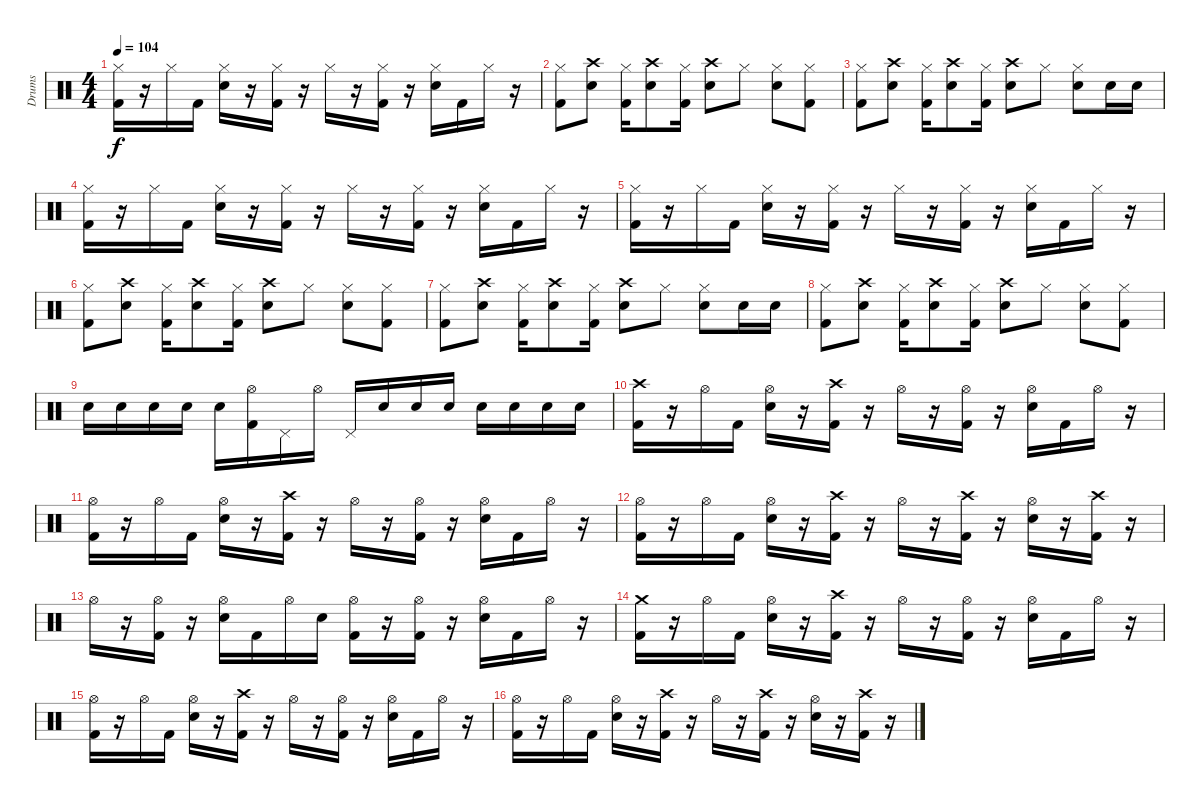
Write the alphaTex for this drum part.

\track ("Drums" "Drums") {instrument percussion}
\staff {score}
\articulation defaults
\ts (4 4)
\tempo 104
\clef neutral
\ks c
("Hi-Hat (closed)" "Kick (hit) 2").16{dy f} r.16 "Hi-Hat (closed)".16 "Kick (hit) 2".16 ("Hi-Hat (closed)" "Snare (hit) 2").16 r.16 ("Hi-Hat (closed)" "Kick (hit) 2").16 r.16 "Hi-Hat (closed)".16 r.16 ("Hi-Hat (closed)" "Kick (hit) 2").16 r.16 ("Hi-Hat (closed)" "Snare (hit) 2").16 "Kick (hit) 2".16 "Hi-Hat (closed)".16 r.16 |
("Hi-Hat (closed)" "Kick (hit) 2").8 ("Crash high (hit)" "Snare (hit) 2").8 ("Hi-Hat (closed)" "Kick (hit) 2").16 ("Crash high (hit)" "Snare (hit) 2").8 ("Hi-Hat (closed)" "Kick (hit) 2").16 ("Crash high (hit)" "Snare (hit) 2").8 "Hi-Hat (closed)".8 ("Hi-Hat (closed)" "Snare (hit) 2").8 ("Hi-Hat (closed)" "Kick (hit) 2").8 |
("Hi-Hat (closed)" "Kick (hit) 2").8 ("Crash high (hit)" "Snare (hit) 2").8 ("Hi-Hat (closed)" "Kick (hit) 2").16 ("Crash high (hit)" "Snare (hit) 2").8 ("Hi-Hat (closed)" "Kick (hit) 2").16 ("Crash high (hit)" "Snare (hit) 2").8 "Hi-Hat (closed)".8 ("Hi-Hat (closed)" "Snare (hit) 2").8 "Snare (hit) 2".16 "Snare (hit) 2".16 |
("Hi-Hat (closed)" "Kick (hit) 2").16 r.16 "Hi-Hat (closed)".16 "Kick (hit) 2".16 ("Hi-Hat (closed)" "Snare (hit) 2").16 r.16 ("Hi-Hat (closed)" "Kick (hit) 2").16 r.16 "Hi-Hat (closed)".16 r.16 ("Hi-Hat (closed)" "Kick (hit) 2").16 r.16 ("Hi-Hat (closed)" "Snare (hit) 2").16 "Kick (hit) 2".16 "Hi-Hat (closed)".16 r.16 |
("Hi-Hat (closed)" "Kick (hit) 2").16 r.16 "Hi-Hat (closed)".16 "Kick (hit) 2".16 ("Hi-Hat (closed)" "Snare (hit) 2").16 r.16 ("Hi-Hat (closed)" "Kick (hit) 2").16 r.16 "Hi-Hat (closed)".16 r.16 ("Hi-Hat (closed)" "Kick (hit) 2").16 r.16 ("Hi-Hat (closed)" "Snare (hit) 2").16 "Kick (hit) 2".16 "Hi-Hat (closed)".16 r.16 |
("Hi-Hat (closed)" "Kick (hit) 2").8 ("Crash high (hit)" "Snare (hit) 2").8 ("Hi-Hat (closed)" "Kick (hit) 2").16 ("Crash high (hit)" "Snare (hit) 2").8 ("Hi-Hat (closed)" "Kick (hit) 2").16 ("Crash high (hit)" "Snare (hit) 2").8 "Hi-Hat (closed)".8 ("Hi-Hat (closed)" "Snare (hit) 2").8 ("Hi-Hat (closed)" "Kick (hit) 2").8 |
("Hi-Hat (closed)" "Kick (hit) 2").8 ("Crash high (hit)" "Snare (hit) 2").8 ("Hi-Hat (closed)" "Kick (hit) 2").16 ("Crash high (hit)" "Snare (hit) 2").8 ("Hi-Hat (closed)" "Kick (hit) 2").16 ("Crash high (hit)" "Snare (hit) 2").8 "Hi-Hat (closed)".8 ("Hi-Hat (closed)" "Snare (hit) 2").8 "Snare (hit) 2".16 "Snare (hit) 2".16 |
("Hi-Hat (closed)" "Kick (hit) 2").8 ("Crash high (hit)" "Snare (hit) 2").8 ("Hi-Hat (closed)" "Kick (hit) 2").16 ("Crash high (hit)" "Snare (hit) 2").8 ("Hi-Hat (closed)" "Kick (hit) 2").16 ("Crash high (hit)" "Snare (hit) 2").8 "Hi-Hat (closed)".8 ("Hi-Hat (closed)" "Snare (hit) 2").8 ("Hi-Hat (closed)" "Kick (hit) 2").8 |
"Snare (hit) 2".16 "Snare (hit) 2".16 "Snare (hit) 2".16 "Snare (hit) 2".16 "Snare (hit) 2".16 ("Hi-Hat (open)" "Kick (hit) 2").16 "Pedal Hi-Hat (hit)".16 "Hi-Hat (open)".16 "Pedal Hi-Hat (hit)".16 "Snare (hit) 2".16 "Snare (hit) 2".16 "Snare (hit) 2".16 "Snare (hit) 2".16 "Snare (hit) 2".16 "Snare (hit) 2".16 "Snare (hit) 2".16 |
("Crash high (hit)" "Kick (hit) 2").16 r.16 "Hi-Hat (open)".16 "Kick (hit) 2".16 ("Hi-Hat (open)" "Snare (hit) 2").16 r.16 ("Crash high (hit)" "Kick (hit) 2").16 r.16 "Hi-Hat (open)".16 r.16 ("Hi-Hat (open)" "Kick (hit) 2").16 r.16 ("Hi-Hat (open)" "Snare (hit) 2").16 "Kick (hit) 2".16 "Hi-Hat (open)".16 r.16 |
("Hi-Hat (open)" "Kick (hit) 2").16 r.16 "Hi-Hat (open)".16 "Kick (hit) 2".16 ("Hi-Hat (open)" "Snare (hit) 2").16 r.16 ("Crash high (hit)" "Kick (hit) 2").16 r.16 "Hi-Hat (open)".16 r.16 ("Hi-Hat (open)" "Kick (hit) 2").16 r.16 ("Hi-Hat (open)" "Snare (hit) 2").16 "Kick (hit) 2".16 "Hi-Hat (open)".16 r.16 |
("Hi-Hat (open)" "Kick (hit) 2").16 r.16 "Hi-Hat (open)".16 "Kick (hit) 2".16 ("Hi-Hat (open)" "Snare (hit) 2").16 r.16 ("Crash high (hit)" "Kick (hit) 2").16 r.16 "Hi-Hat (open)".16 r.16 ("Crash high (hit)" "Kick (hit) 2").16 r.16 ("Hi-Hat (open)" "Snare (hit) 2").16 r.16 ("Crash high (hit)" "Kick (hit) 2").16 r.16 |
"Hi-Hat (open)".16 r.16 ("Hi-Hat (open)" "Kick (hit) 2").16 r.16 ("Hi-Hat (open)" "Snare (hit) 2").16 "Kick (hit) 2".16 "Hi-Hat (open)".16 "Snare (hit) 2".16 ("Hi-Hat (open)" "Kick (hit) 2").16 r.16 ("Hi-Hat (open)" "Kick (hit) 2").16 r.16 ("Hi-Hat (open)" "Snare (hit) 2").16 "Kick (hit) 2".16 "Hi-Hat (open)".16 r.16 |
("Crash medium (hit)" "Kick (hit) 2").16 r.16 "Hi-Hat (open)".16 "Kick (hit) 2".16 ("Hi-Hat (open)" "Snare (hit) 2").16 r.16 ("Crash high (hit)" "Kick (hit) 2").16 r.16 "Hi-Hat (open)".16 r.16 ("Hi-Hat (open)" "Kick (hit) 2").16 r.16 ("Hi-Hat (open)" "Snare (hit) 2").16 "Kick (hit) 2".16 "Hi-Hat (open)".16 r.16 |
("Hi-Hat (open)" "Kick (hit) 2").16 r.16 "Hi-Hat (open)".16 "Kick (hit) 2".16 ("Hi-Hat (open)" "Snare (hit) 2").16 r.16 ("Crash high (hit)" "Kick (hit) 2").16 r.16 "Hi-Hat (open)".16 r.16 ("Hi-Hat (open)" "Kick (hit) 2").16 r.16 ("Hi-Hat (open)" "Snare (hit) 2").16 "Kick (hit) 2".16 "Hi-Hat (open)".16 r.16 |
("Hi-Hat (open)" "Kick (hit) 2").16 r.16 "Hi-Hat (open)".16 "Kick (hit) 2".16 ("Hi-Hat (open)" "Snare (hit) 2").16 r.16 ("Crash high (hit)" "Kick (hit) 2").16 r.16 "Hi-Hat (open)".16 r.16 ("Crash high (hit)" "Kick (hit) 2").16 r.16 ("Hi-Hat (open)" "Snare (hit) 2").16 r.16 ("Crash high (hit)" "Kick (hit) 2").16 r.16
